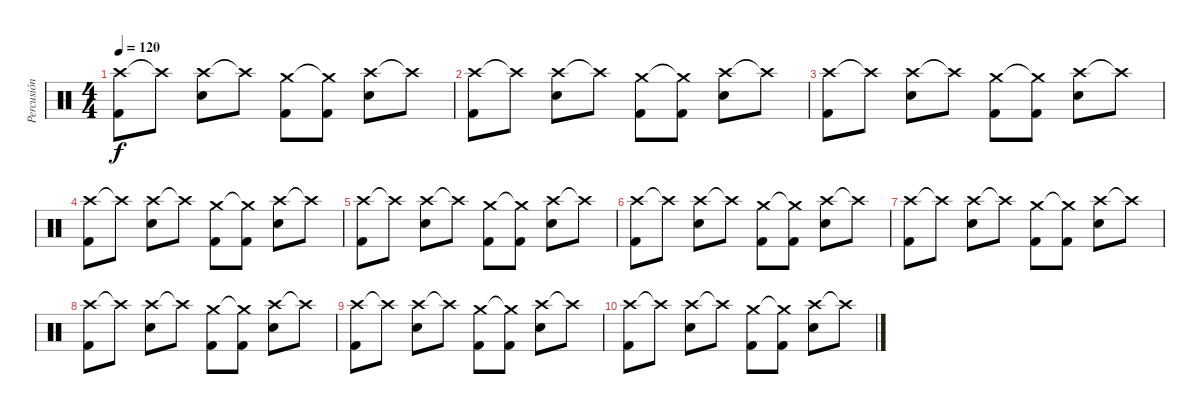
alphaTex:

\track ("Percusión" "Percusión") {instrument percussion}
\staff {score}
\articulation defaults
\ts (4 4)
\tempo 120
\clef neutral
\ks c
("Crash high (hit)" "Kick (hit) 2").8{dy f} "Crash high (hit)"{t}.8 ("Crash high (hit)" "Snare (hit) 2").8 "Crash high (hit)"{t}.8 ("Crash medium (hit)" "Kick (hit) 2").8 ("Crash medium (hit)"{t} "Kick (hit) 2").8 ("Crash high (hit)" "Snare (hit) 2").8 "Crash high (hit)"{t}.8 |
("Crash high (hit)" "Kick (hit) 2").8 "Crash high (hit)"{t}.8 ("Crash high (hit)" "Snare (hit) 2").8 "Crash high (hit)"{t}.8 ("Crash medium (hit)" "Kick (hit) 2").8 ("Crash medium (hit)"{t} "Kick (hit) 2").8 ("Crash high (hit)" "Snare (hit) 2").8 "Crash high (hit)"{t}.8 |
("Crash high (hit)" "Kick (hit) 2").8 "Crash high (hit)"{t}.8 ("Crash high (hit)" "Snare (hit) 2").8 "Crash high (hit)"{t}.8 ("Crash medium (hit)" "Kick (hit) 2").8 ("Crash medium (hit)"{t} "Kick (hit) 2").8 ("Crash high (hit)" "Snare (hit) 2").8 "Crash high (hit)"{t}.8 |
("Crash high (hit)" "Kick (hit) 2").8 "Crash high (hit)"{t}.8 ("Crash high (hit)" "Snare (hit) 2").8 "Crash high (hit)"{t}.8 ("Crash medium (hit)" "Kick (hit) 2").8 ("Crash medium (hit)"{t} "Kick (hit) 2").8 ("Crash high (hit)" "Snare (hit) 2").8 "Crash high (hit)"{t}.8 |
("Crash high (hit)" "Kick (hit) 2").8 "Crash high (hit)"{t}.8 ("Crash high (hit)" "Snare (hit) 2").8 "Crash high (hit)"{t}.8 ("Crash medium (hit)" "Kick (hit) 2").8 ("Crash medium (hit)"{t} "Kick (hit) 2").8 ("Crash high (hit)" "Snare (hit) 2").8 "Crash high (hit)"{t}.8 |
("Crash high (hit)" "Kick (hit) 2").8 "Crash high (hit)"{t}.8 ("Crash high (hit)" "Snare (hit) 2").8 "Crash high (hit)"{t}.8 ("Crash medium (hit)" "Kick (hit) 2").8 ("Crash medium (hit)"{t} "Kick (hit) 2").8 ("Crash high (hit)" "Snare (hit) 2").8 "Crash high (hit)"{t}.8 |
("Crash high (hit)" "Kick (hit) 2").8 "Crash high (hit)"{t}.8 ("Crash high (hit)" "Snare (hit) 2").8 "Crash high (hit)"{t}.8 ("Crash medium (hit)" "Kick (hit) 2").8 ("Crash medium (hit)"{t} "Kick (hit) 2").8 ("Crash high (hit)" "Snare (hit) 2").8 "Crash high (hit)"{t}.8 |
("Crash high (hit)" "Kick (hit) 2").8 "Crash high (hit)"{t}.8 ("Crash high (hit)" "Snare (hit) 2").8 "Crash high (hit)"{t}.8 ("Crash medium (hit)" "Kick (hit) 2").8 ("Crash medium (hit)"{t} "Kick (hit) 2").8 ("Crash high (hit)" "Snare (hit) 2").8 "Crash high (hit)"{t}.8 |
("Crash high (hit)" "Kick (hit) 2").8 "Crash high (hit)"{t}.8 ("Crash high (hit)" "Snare (hit) 2").8 "Crash high (hit)"{t}.8 ("Crash medium (hit)" "Kick (hit) 2").8 ("Crash medium (hit)"{t} "Kick (hit) 2").8 ("Crash high (hit)" "Snare (hit) 2").8 "Crash high (hit)"{t}.8 |
("Crash high (hit)" "Kick (hit) 2").8 "Crash high (hit)"{t}.8 ("Crash high (hit)" "Snare (hit) 2").8 "Crash high (hit)"{t}.8 ("Crash medium (hit)" "Kick (hit) 2").8 ("Crash medium (hit)"{t} "Kick (hit) 2").8 ("Crash high (hit)" "Snare (hit) 2").8 "Crash high (hit)"{t}.8
